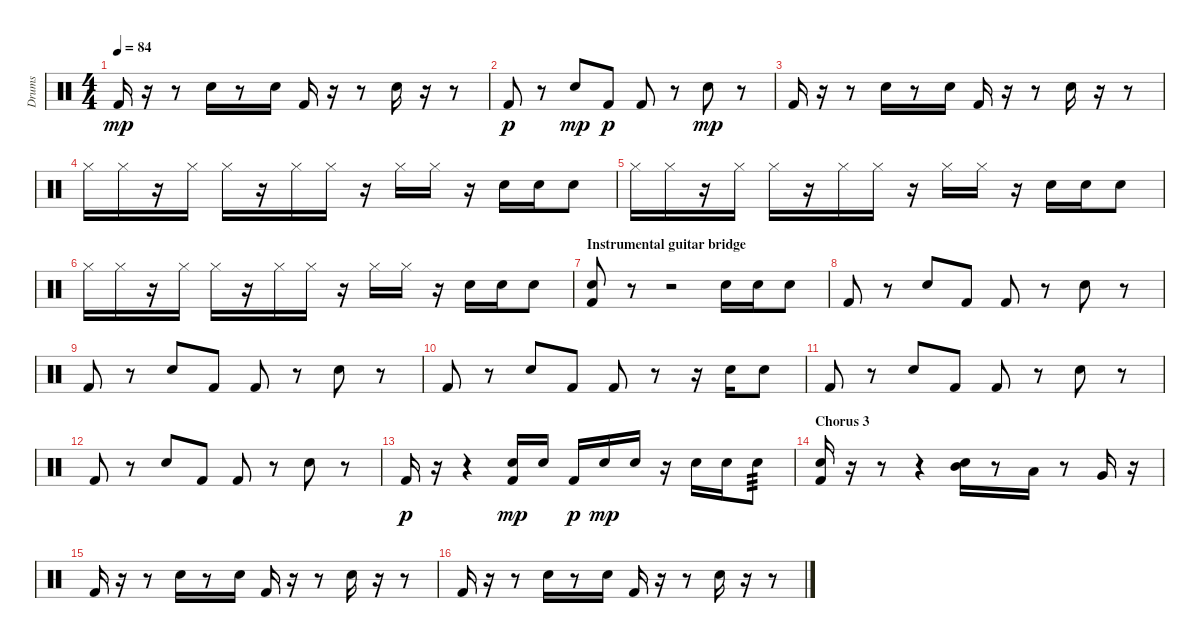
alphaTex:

\track ("Drums" "Drums") {instrument percussion}
\staff {score}
\articulation defaults
\ts (4 4)
\tempo 84
\clef neutral
\ks c "Kick (hit) 2".16{dy mp}
r.16 r.8 "Snare (hit) 2".16 r.8 "Snare (hit) 2".16 "Kick (hit) 2".16 r.16 r.8 "Snare (hit) 2".16 r.16 r.8 |
"Kick (hit) 2".8{dy p} r.8 "Snare (hit) 2".8{dy mp} "Kick (hit) 2".8{dy p} "Kick (hit) 2".8 r.8 "Snare (hit) 2".8{dy mp} r.8 |
"Kick (hit) 2".16 r.16 r.8 "Snare (hit) 2".16 r.8 "Snare (hit) 2".16 "Kick (hit) 2".16 r.16 r.8 "Snare (hit) 2".16 r.16 r.8 |
"Hi-Hat (closed)".16 "Hi-Hat (closed)".16 r.16 "Hi-Hat (closed)".16 "Hi-Hat (closed)".16 r.16 "Hi-Hat (closed)".16 "Hi-Hat (closed)".16 r.16 "Hi-Hat (closed)".16 "Hi-Hat (closed)".16 r.16 "Snare (hit) 2".16 "Snare (hit) 2".16 "Snare (hit) 2".8 |
"Hi-Hat (closed)".16 "Hi-Hat (closed)".16 r.16 "Hi-Hat (closed)".16 "Hi-Hat (closed)".16 r.16 "Hi-Hat (closed)".16 "Hi-Hat (closed)".16 r.16 "Hi-Hat (closed)".16 "Hi-Hat (closed)".16 r.16 "Snare (hit) 2".16 "Snare (hit) 2".16 "Snare (hit) 2".8 |
"Hi-Hat (closed)".16 "Hi-Hat (closed)".16 r.16 "Hi-Hat (closed)".16 "Hi-Hat (closed)".16 r.16 "Hi-Hat (closed)".16 "Hi-Hat (closed)".16 r.16 "Hi-Hat (closed)".16 "Hi-Hat (closed)".16 r.16 "Snare (hit) 2".16 "Snare (hit) 2".16 "Snare (hit) 2".8 |
\section ("" "Instrumental guitar bridge")
("Snare (hit) 2" "Kick (hit) 2").8 r.8 r.2 "Snare (hit) 2".16 "Snare (hit) 2".16 "Snare (hit) 2".8 |
"Kick (hit) 2".8 r.8 "Snare (hit) 2".8 "Kick (hit) 2".8 "Kick (hit) 2".8 r.8 "Snare (hit) 2".8 r.8 |
"Kick (hit) 2".8 r.8 "Snare (hit) 2".8 "Kick (hit) 2".8 "Kick (hit) 2".8 r.8 "Snare (hit) 2".8 r.8 |
"Kick (hit) 2".8 r.8 "Snare (hit) 2".8 "Kick (hit) 2".8 "Kick (hit) 2".8 r.8 r.16 "Snare (hit) 2".16 "Snare (hit) 2".8 |
"Kick (hit) 2".8 r.8 "Snare (hit) 2".8 "Kick (hit) 2".8 "Kick (hit) 2".8 r.8 "Snare (hit) 2".8 r.8 |
"Kick (hit) 2".8 r.8 "Snare (hit) 2".8 "Kick (hit) 2".8 "Kick (hit) 2".8 r.8 "Snare (hit) 2".8 r.8 |
"Kick (hit) 2".16{dy p} r.16 r.4 ("Snare (hit) 2" "Kick (hit) 2").16{dy mp} "Snare (hit) 2".16 "Kick (hit) 2".16{dy p} "Snare (hit) 2".16{dy mp} "Snare (hit) 2".16 r.16 "Snare (hit) 2".16 "Snare (hit) 2".16 "Snare (hit) 2".8{tp 3} |
\section ("" "Chorus 3")
("Snare (hit) 2" "Kick (hit) 2").16 r.16 r.8 r.4 ("Mid Tom (hit)" "Snare (hit) 2").16 r.8 "Low Tom (hit)".16 r.8 "Very Low Tom (hit)".16 r.16 |
"Kick (hit) 2".16 r.16 r.8 "Snare (hit) 2".16 r.8 "Snare (hit) 2".16 "Kick (hit) 2".16 r.16 r.8 "Snare (hit) 2".16 r.16 r.8 |
"Kick (hit) 2".16 r.16 r.8 "Snare (hit) 2".16 r.8 "Snare (hit) 2".16 "Kick (hit) 2".16 r.16 r.8 "Snare (hit) 2".16 r.16 r.8
